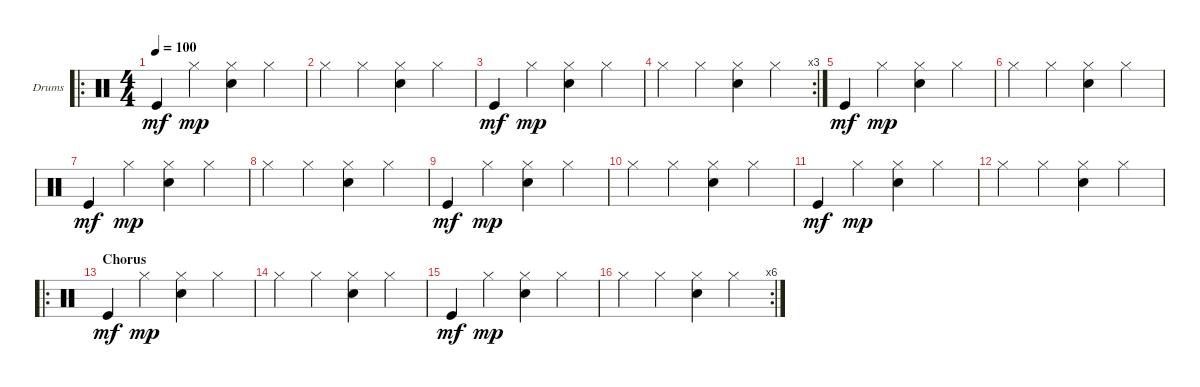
\defaultSystemsLayout 4
\bracketExtendMode groupsimilarinstruments
\firstSystemTrackNameOrientation horizontal
\otherSystemsTrackNameOrientation horizontal
\track ("Drumkit" "Drums") {instrument percussion}
\staff {score}
\articulation defaults
\ro
\ts (4 4)
\tempo 100
\clef neutral
\ks c "Kick (hit)".4{dy mf} "Hi-Hat (closed)".4{dy mp}
("Snare (hit) 2" "Hi-Hat (closed)").4 "Hi-Hat (closed)".4 |
"Hi-Hat (closed)".4 "Hi-Hat (closed)".4 ("Snare (hit) 2" "Hi-Hat (closed)").4 "Hi-Hat (closed)".4 |
"Kick (hit)".4{dy mf} "Hi-Hat (closed)".4{dy mp} ("Snare (hit) 2" "Hi-Hat (closed)").4 "Hi-Hat (closed)".4 |
\rc 3 "Hi-Hat (closed)".4 "Hi-Hat (closed)".4
("Snare (hit) 2" "Hi-Hat (closed)").4 "Hi-Hat (closed)".4 |
"Kick (hit)".4{dy mf} "Hi-Hat (closed)".4{dy mp} ("Snare (hit) 2" "Hi-Hat (closed)").4 "Hi-Hat (closed)".4 |
"Hi-Hat (closed)".4 "Hi-Hat (closed)".4 ("Snare (hit) 2" "Hi-Hat (closed)").4 "Hi-Hat (closed)".4 |
"Kick (hit)".4{dy mf} "Hi-Hat (closed)".4{dy mp} ("Snare (hit) 2" "Hi-Hat (closed)").4 "Hi-Hat (closed)".4 |
"Hi-Hat (closed)".4 "Hi-Hat (closed)".4 ("Snare (hit) 2" "Hi-Hat (closed)").4 "Hi-Hat (closed)".4 |
"Kick (hit)".4{dy mf} "Hi-Hat (closed)".4{dy mp} ("Snare (hit) 2" "Hi-Hat (closed)").4 "Hi-Hat (closed)".4 |
"Hi-Hat (closed)".4 "Hi-Hat (closed)".4 ("Snare (hit) 2" "Hi-Hat (closed)").4 "Hi-Hat (closed)".4 |
"Kick (hit)".4{dy mf} "Hi-Hat (closed)".4{dy mp} ("Snare (hit) 2" "Hi-Hat (closed)").4 "Hi-Hat (closed)".4 |
"Hi-Hat (closed)".4 "Hi-Hat (closed)".4 ("Snare (hit) 2" "Hi-Hat (closed)").4 "Hi-Hat (closed)".4 |
\ro
\section ("" "Chorus")
\scale
0.321839 "Kick (hit)".4{dy mf} "Hi-Hat (closed)".4{dy mp} ("Snare (hit) 2" "Hi-Hat (closed)").4 "Hi-Hat (closed)".4 |
\scale
0.321839 "Hi-Hat (closed)".4 "Hi-Hat (closed)".4 ("Snare (hit) 2" "Hi-Hat (closed)").4 "Hi-Hat (closed)".4 |
\scale
0.333333 "Kick (hit)".4{dy mf} "Hi-Hat (closed)".4{dy mp} ("Snare (hit) 2" "Hi-Hat (closed)").4 "Hi-Hat (closed)".4 |
\rc 6
\scale
0.333333 "Hi-Hat (closed)".4 "Hi-Hat (closed)".4 ("Snare (hit) 2" "Hi-Hat (closed)").4 "Hi-Hat (closed)".4
